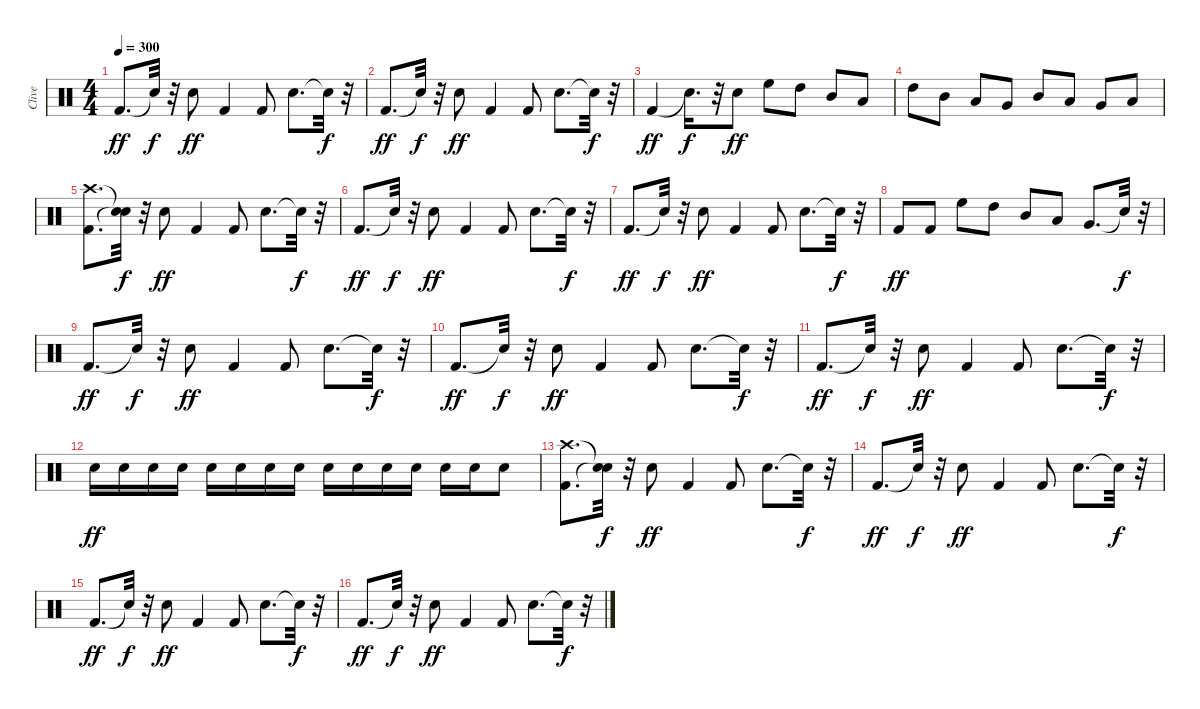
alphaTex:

\track ("Clive" "Clive") {instrument percussion}
\staff {score}
\articulation defaults
\ts (4 4)
\tempo 300
\clef neutral
\ks c "Kick (hit) 2".8{d dy ff} "Snare (hit)"{t}.32{dy f}
r.32 "Snare (hit) 2".8{dy ff} "Kick (hit) 2".4 "Kick (hit) 2".8 "Snare (hit) 2".8{d} "Snare (hit)"{t}.32{dy f} r.32 |
"Kick (hit) 2".8{d dy ff} "Snare (hit)"{t}.32{dy f} r.32 "Snare (hit) 2".8{dy ff} "Kick (hit) 2".4 "Kick (hit) 2".8 "Snare (hit) 2".8{d} "Snare (hit)"{t}.32{dy f} r.32 |
"Kick (hit) 2".4{dy ff} "Snare (hit)"{t}.16{d dy f} r.32 "Snare (hit) 2".8{dy ff} "High Floor Tom (hit)".8 "High Tom (hit)".8 "Mid Tom (hit)".8 "Low Tom (hit)".8 |
"High Tom (hit)".8 "Mid Tom (hit)".8 "Low Tom (hit)".8 "Very Low Tom (hit)".8 "Mid Tom (hit)".8 "Low Tom (hit)".8 "Very Low Tom (hit)".8 "Low Floor Tom (hit)".8 |
("Kick (hit) 2" "Crash high (hit)").8{d} ("Snare (hit)"{t} "Snare (hit)"{t}).32{dy f} r.32 "Snare (hit) 2".8{dy ff} "Kick (hit) 2".4 "Kick (hit) 2".8 "Snare (hit) 2".8{d} "Snare (hit)"{t}.32{dy f} r.32 |
"Kick (hit) 2".8{d dy ff} "Snare (hit)"{t}.32{dy f} r.32 "Snare (hit) 2".8{dy ff} "Kick (hit) 2".4 "Kick (hit) 2".8 "Snare (hit) 2".8{d} "Snare (hit)"{t}.32{dy f} r.32 |
"Kick (hit) 2".8{d dy ff} "Snare (hit)"{t}.32{dy f} r.32 "Snare (hit) 2".8{dy ff} "Kick (hit) 2".4 "Kick (hit) 2".8 "Snare (hit) 2".8{d} "Snare (hit)"{t}.32{dy f} r.32 |
"Kick (hit) 2".8{dy ff} "Kick (hit) 2".8 "High Floor Tom (hit)".8 "High Tom (hit)".8 "Mid Tom (hit)".8 "Low Tom (hit)".8 "Very Low Tom (hit)".8{d} "Snare (hit)"{t}.32{dy f} r.32 |
"Kick (hit) 2".8{d dy ff} "Snare (hit)"{t}.32{dy f} r.32 "Snare (hit) 2".8{dy ff} "Kick (hit) 2".4 "Kick (hit) 2".8 "Snare (hit) 2".8{d} "Snare (hit)"{t}.32{dy f} r.32 |
"Kick (hit) 2".8{d dy ff} "Snare (hit)"{t}.32{dy f} r.32 "Snare (hit) 2".8{dy ff} "Kick (hit) 2".4 "Kick (hit) 2".8 "Snare (hit) 2".8{d} "Snare (hit)"{t}.32{dy f} r.32 |
"Kick (hit) 2".8{d dy ff} "Snare (hit)"{t}.32{dy f} r.32 "Snare (hit) 2".8{dy ff} "Kick (hit) 2".4 "Kick (hit) 2".8 "Snare (hit) 2".8{d} "Snare (hit)"{t}.32{dy f} r.32 |
"Snare (hit) 2".16{dy ff} "Snare (hit) 2".16 "Snare (hit) 2".16 "Snare (hit) 2".16 "Snare (hit) 2".16 "Snare (hit) 2".16 "Snare (hit) 2".16 "Snare (hit) 2".16 "Snare (hit) 2".16 "Snare (hit) 2".16 "Snare (hit) 2".16 "Snare (hit) 2".16 "Snare (hit) 2".16 "Snare (hit) 2".16 "Snare (hit) 2".8 |
("Kick (hit) 2" "Crash high (hit)").8{d} ("Snare (hit)"{t} "Snare (hit)"{t}).32{dy f} r.32 "Snare (hit) 2".8{dy ff} "Kick (hit) 2".4 "Kick (hit) 2".8 "Snare (hit) 2".8{d} "Snare (hit)"{t}.32{dy f} r.32 |
"Kick (hit) 2".8{d dy ff} "Snare (hit)"{t}.32{dy f} r.32 "Snare (hit) 2".8{dy ff} "Kick (hit) 2".4 "Kick (hit) 2".8 "Snare (hit) 2".8{d} "Snare (hit)"{t}.32{dy f} r.32 |
"Kick (hit) 2".8{d dy ff} "Snare (hit)"{t}.32{dy f} r.32 "Snare (hit) 2".8{dy ff} "Kick (hit) 2".4 "Kick (hit) 2".8 "Snare (hit) 2".8{d} "Snare (hit)"{t}.32{dy f} r.32 |
"Kick (hit) 2".8{d dy ff} "Snare (hit)"{t}.32{dy f} r.32 "Snare (hit) 2".8{dy ff} "Kick (hit) 2".4 "Kick (hit) 2".8 "Snare (hit) 2".8{d} "Snare (hit)"{t}.32{dy f} r.32
